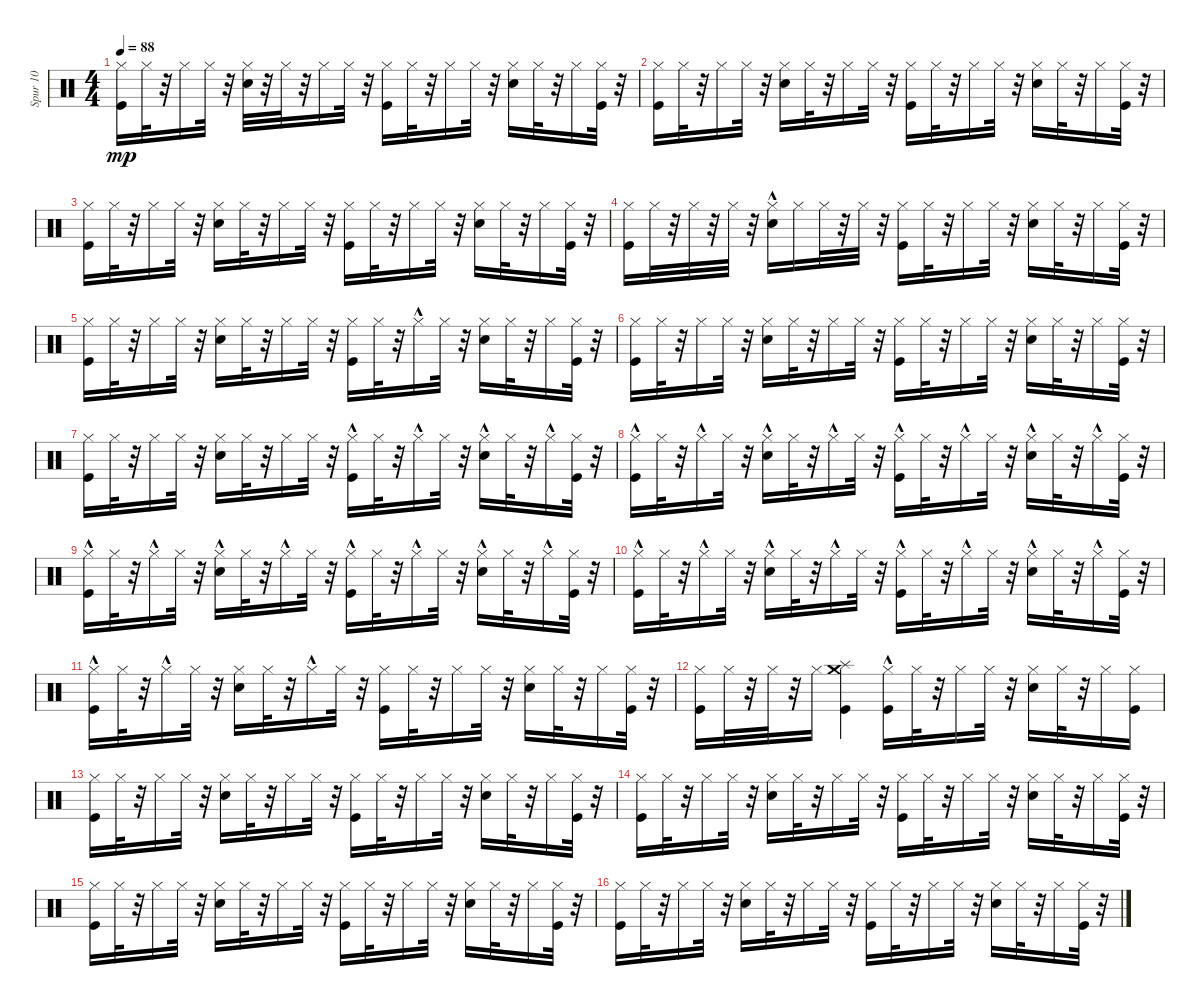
\track ("Spur 10" "Spur 10") {instrument percussion}
\staff {score}
\articulation defaults
\ts (4 4)
\tempo 88
\clef neutral
\ks c
("Kick (hit)" "Hi-Hat (closed)").16{dy mp} "Hi-Hat (closed)".32 r.32 "Hi-Hat (closed)".16 "Hi-Hat (closed)".32 r.32 ("Snare (hit) 2" "Hi-Hat (closed)").32 r.32 "Hi-Hat (closed)".32 r.32 "Hi-Hat (closed)".16 "Hi-Hat (closed)".32 r.32 ("Kick (hit)" "Hi-Hat (closed)").16 "Hi-Hat (closed)".32 r.32 "Hi-Hat (closed)".16 "Hi-Hat (closed)".32 r.32 ("Snare (hit) 2" "Hi-Hat (closed)").16 "Hi-Hat (closed)".32 r.32 "Hi-Hat (closed)".16 ("Kick (hit)" "Hi-Hat (closed)").32 r.32 |
("Kick (hit)" "Hi-Hat (closed)").16 "Hi-Hat (closed)".32 r.32 "Hi-Hat (closed)".16 "Hi-Hat (closed)".32 r.32 ("Snare (hit) 2" "Hi-Hat (closed)").16 "Hi-Hat (closed)".32 r.32 "Hi-Hat (closed)".16 "Hi-Hat (closed)".32 r.32 ("Kick (hit)" "Hi-Hat (closed)").16 "Hi-Hat (closed)".32 r.32 "Hi-Hat (closed)".16 "Hi-Hat (closed)".32 r.32 ("Snare (hit) 2" "Hi-Hat (closed)").16 "Hi-Hat (closed)".32 r.32 "Hi-Hat (closed)".16 ("Kick (hit)" "Hi-Hat (closed)").32 r.32 |
("Kick (hit)" "Hi-Hat (closed)").16 "Hi-Hat (closed)".32 r.32 "Hi-Hat (closed)".16 "Hi-Hat (closed)".32 r.32 ("Snare (hit) 2" "Hi-Hat (closed)").16 "Hi-Hat (closed)".32 r.32 "Hi-Hat (closed)".16 "Hi-Hat (closed)".32 r.32 ("Kick (hit)" "Hi-Hat (closed)").16 "Hi-Hat (closed)".32 r.32 "Hi-Hat (closed)".16 "Hi-Hat (closed)".32 r.32 ("Snare (hit) 2" "Hi-Hat (closed)").16 "Hi-Hat (closed)".32 r.32 "Hi-Hat (closed)".16 ("Kick (hit)" "Hi-Hat (closed)").32 r.32 |
("Kick (hit)" "Hi-Hat (closed)").16 "Hi-Hat (closed)".32 r.32 "Hi-Hat (closed)".32 r.32 "Hi-Hat (closed)".32 r.32 ("Snare (hit) 2" "Hi-Hat (closed)"{hac}).16 "Hi-Hat (closed)".16 "Hi-Hat (closed)".32 r.32 "Hi-Hat (closed)".32 r.32 ("Kick (hit)" "Hi-Hat (closed)").16 "Hi-Hat (closed)".32 r.32 "Hi-Hat (closed)".16 "Hi-Hat (closed)".32 r.32 ("Snare (hit) 2" "Hi-Hat (closed)").16 "Hi-Hat (closed)".32 r.32 "Hi-Hat (closed)".16 ("Kick (hit)" "Hi-Hat (closed)").32 r.32 |
("Kick (hit)" "Hi-Hat (closed)").16 "Hi-Hat (closed)".32 r.32 "Hi-Hat (closed)".16 "Hi-Hat (closed)".32 r.32 ("Snare (hit) 2" "Hi-Hat (closed)").16 "Hi-Hat (closed)".32 r.32 "Hi-Hat (closed)".16 "Hi-Hat (closed)".32 r.32 ("Kick (hit)" "Hi-Hat (closed)").16 "Hi-Hat (closed)".32 r.32 "Hi-Hat (closed)"{hac}.16 "Hi-Hat (closed)".32 r.32 ("Snare (hit) 2" "Hi-Hat (closed)").16 "Hi-Hat (closed)".32 r.32 "Hi-Hat (closed)".16 ("Kick (hit)" "Hi-Hat (closed)").32 r.32 |
("Kick (hit)" "Hi-Hat (closed)").16 "Hi-Hat (closed)".32 r.32 "Hi-Hat (closed)".16 "Hi-Hat (closed)".32 r.32 ("Snare (hit) 2" "Hi-Hat (closed)").16 "Hi-Hat (closed)".32 r.32 "Hi-Hat (closed)".16 "Hi-Hat (closed)".32 r.32 ("Kick (hit)" "Hi-Hat (closed)").16 "Hi-Hat (closed)".32 r.32 "Hi-Hat (closed)".16 "Hi-Hat (closed)".32 r.32 ("Snare (hit) 2" "Hi-Hat (closed)").16 "Hi-Hat (closed)".32 r.32 "Hi-Hat (closed)".16 ("Kick (hit)" "Hi-Hat (closed)").32 r.32 |
("Kick (hit)" "Hi-Hat (closed)").16 "Hi-Hat (closed)".32 r.32 "Hi-Hat (closed)".16 "Hi-Hat (closed)".32 r.32 ("Snare (hit) 2" "Hi-Hat (closed)").16 "Hi-Hat (closed)".32 r.32 "Hi-Hat (closed)".16 "Hi-Hat (closed)".32 r.32 ("Kick (hit)"{hac} "Hi-Hat (closed)"{hac}).16 "Hi-Hat (closed)".32 r.32 "Hi-Hat (closed)"{hac}.16 "Hi-Hat (closed)".32 r.32 ("Snare (hit) 2" "Hi-Hat (closed)"{hac}).16 "Hi-Hat (closed)".32 r.32 "Hi-Hat (closed)"{hac}.16 ("Kick (hit)" "Hi-Hat (closed)").32 r.32 |
("Kick (hit)" "Hi-Hat (closed)"{hac}).16 "Hi-Hat (closed)".32 r.32 "Hi-Hat (closed)"{hac}.16 "Hi-Hat (closed)".32 r.32 ("Snare (hit) 2" "Hi-Hat (closed)"{hac}).16 "Hi-Hat (closed)".32 r.32 "Hi-Hat (closed)"{hac}.16 "Hi-Hat (closed)".32 r.32 ("Kick (hit)"{hac} "Hi-Hat (closed)"{hac}).16 "Hi-Hat (closed)".32 r.32 "Hi-Hat (closed)"{hac}.16 "Hi-Hat (closed)".32 r.32 ("Snare (hit) 2" "Hi-Hat (closed)"{hac}).16 "Hi-Hat (closed)".32 r.32 "Hi-Hat (closed)"{hac}.16 ("Kick (hit)" "Hi-Hat (closed)").32 r.32 |
("Kick (hit)" "Hi-Hat (closed)"{hac}).16 "Hi-Hat (closed)".32 r.32 "Hi-Hat (closed)"{hac}.16 "Hi-Hat (closed)".32 r.32 ("Snare (hit) 2" "Hi-Hat (closed)"{hac}).16 "Hi-Hat (closed)".32 r.32 "Hi-Hat (closed)"{hac}.16 "Hi-Hat (closed)".32 r.32 ("Kick (hit)"{hac} "Hi-Hat (closed)"{hac}).16 "Hi-Hat (closed)".32 r.32 "Hi-Hat (closed)"{hac}.16 "Hi-Hat (closed)".32 r.32 ("Snare (hit) 2" "Hi-Hat (closed)"{hac}).16 "Hi-Hat (closed)".32 r.32 "Hi-Hat (closed)"{hac}.16 ("Kick (hit)" "Hi-Hat (closed)").32 r.32 |
("Kick (hit)" "Hi-Hat (closed)"{hac}).16 "Hi-Hat (closed)".32 r.32 "Hi-Hat (closed)"{hac}.16 "Hi-Hat (closed)".32 r.32 ("Snare (hit) 2" "Hi-Hat (closed)"{hac}).16 "Hi-Hat (closed)".32 r.32 "Hi-Hat (closed)"{hac}.16 "Hi-Hat (closed)".32 r.32 ("Kick (hit)"{hac} "Hi-Hat (closed)"{hac}).16 "Hi-Hat (closed)".32 r.32 "Hi-Hat (closed)"{hac}.16 "Hi-Hat (closed)".32 r.32 ("Snare (hit) 2" "Hi-Hat (closed)"{hac}).16 "Hi-Hat (closed)".32 r.32 "Hi-Hat (closed)"{hac}.16 ("Kick (hit)" "Hi-Hat (closed)").32 r.32 |
("Kick (hit)" "Hi-Hat (closed)"{hac}).16 "Hi-Hat (closed)".32 r.32 "Hi-Hat (closed)"{hac}.16 "Hi-Hat (closed)".32 r.32 ("Snare (hit) 2" "Hi-Hat (closed)").16 "Hi-Hat (closed)".32 r.32 "Hi-Hat (closed)"{hac}.16 "Hi-Hat (closed)".32 r.32 ("Kick (hit)" "Hi-Hat (closed)").16 "Hi-Hat (closed)".32 r.32 "Hi-Hat (closed)".16 "Hi-Hat (closed)".32 r.32 ("Snare (hit) 2" "Hi-Hat (closed)").16 "Hi-Hat (closed)".32 r.32 "Hi-Hat (closed)".16 ("Kick (hit)" "Hi-Hat (closed)").32 r.32 |
("Kick (hit)" "Hi-Hat (closed)").16 "Hi-Hat (closed)".32 r.32 "Hi-Hat (closed)".32 r.32 "Hi-Hat (closed)".16 ("Kick (hit)" "Splash (hit)" "Crash medium (hit)").4 ("Kick (hit)"{hac} "Hi-Hat (closed)").16 "Hi-Hat (closed)".32 r.32 "Hi-Hat (closed)".16 "Hi-Hat (closed)".32 r.32 ("Snare (hit) 2" "Hi-Hat (closed)").16 "Hi-Hat (closed)".32 r.32 "Hi-Hat (closed)".16 ("Kick (hit)" "Hi-Hat (closed)").16 |
("Kick (hit)" "Hi-Hat (closed)").16 "Hi-Hat (closed)".32 r.32 "Hi-Hat (closed)".16 "Hi-Hat (closed)".32 r.32 ("Snare (hit) 2" "Hi-Hat (closed)").16 "Hi-Hat (closed)".32 r.32 "Hi-Hat (closed)".16 "Hi-Hat (closed)".32 r.32 ("Kick (hit)" "Hi-Hat (closed)").16 "Hi-Hat (closed)".32 r.32 "Hi-Hat (closed)".16 "Hi-Hat (closed)".32 r.32 ("Snare (hit) 2" "Hi-Hat (closed)").16 "Hi-Hat (closed)".32 r.32 "Hi-Hat (closed)".16 ("Kick (hit)" "Hi-Hat (closed)").32 r.32 |
("Kick (hit)" "Hi-Hat (closed)").16 "Hi-Hat (closed)".32 r.32 "Hi-Hat (closed)".16 "Hi-Hat (closed)".32 r.32 ("Snare (hit) 2" "Hi-Hat (closed)").16 "Hi-Hat (closed)".32 r.32 "Hi-Hat (closed)".16 "Hi-Hat (closed)".32 r.32 ("Kick (hit)" "Hi-Hat (closed)").16 "Hi-Hat (closed)".32 r.32 "Hi-Hat (closed)".16 "Hi-Hat (closed)".32 r.32 ("Snare (hit) 2" "Hi-Hat (closed)").16 "Hi-Hat (closed)".32 r.32 "Hi-Hat (closed)".16 ("Kick (hit)" "Hi-Hat (closed)").32 r.32 |
("Kick (hit)" "Hi-Hat (closed)").16 "Hi-Hat (closed)".32 r.32 "Hi-Hat (closed)".16 "Hi-Hat (closed)".32 r.32 ("Snare (hit) 2" "Hi-Hat (closed)").16 "Hi-Hat (closed)".32 r.32 "Hi-Hat (closed)".16 "Hi-Hat (closed)".32 r.32 ("Kick (hit)" "Hi-Hat (closed)").16 "Hi-Hat (closed)".32 r.32 "Hi-Hat (closed)".16 "Hi-Hat (closed)".32 r.32 ("Snare (hit) 2" "Hi-Hat (closed)").16 "Hi-Hat (closed)".32 r.32 "Hi-Hat (closed)".16 ("Kick (hit)" "Hi-Hat (closed)").32 r.32 |
("Kick (hit)" "Hi-Hat (closed)").16 "Hi-Hat (closed)".32 r.32 "Hi-Hat (closed)".16 "Hi-Hat (closed)".32 r.32 ("Snare (hit) 2" "Hi-Hat (closed)").16 "Hi-Hat (closed)".32 r.32 "Hi-Hat (closed)".16 "Hi-Hat (closed)".32 r.32 ("Kick (hit)" "Hi-Hat (closed)").16 "Hi-Hat (closed)".32 r.32 "Hi-Hat (closed)".16 "Hi-Hat (closed)".32 r.32 ("Snare (hit) 2" "Hi-Hat (closed)").16 "Hi-Hat (closed)".32 r.32 "Hi-Hat (closed)".16 ("Kick (hit)" "Hi-Hat (closed)").32 r.32
